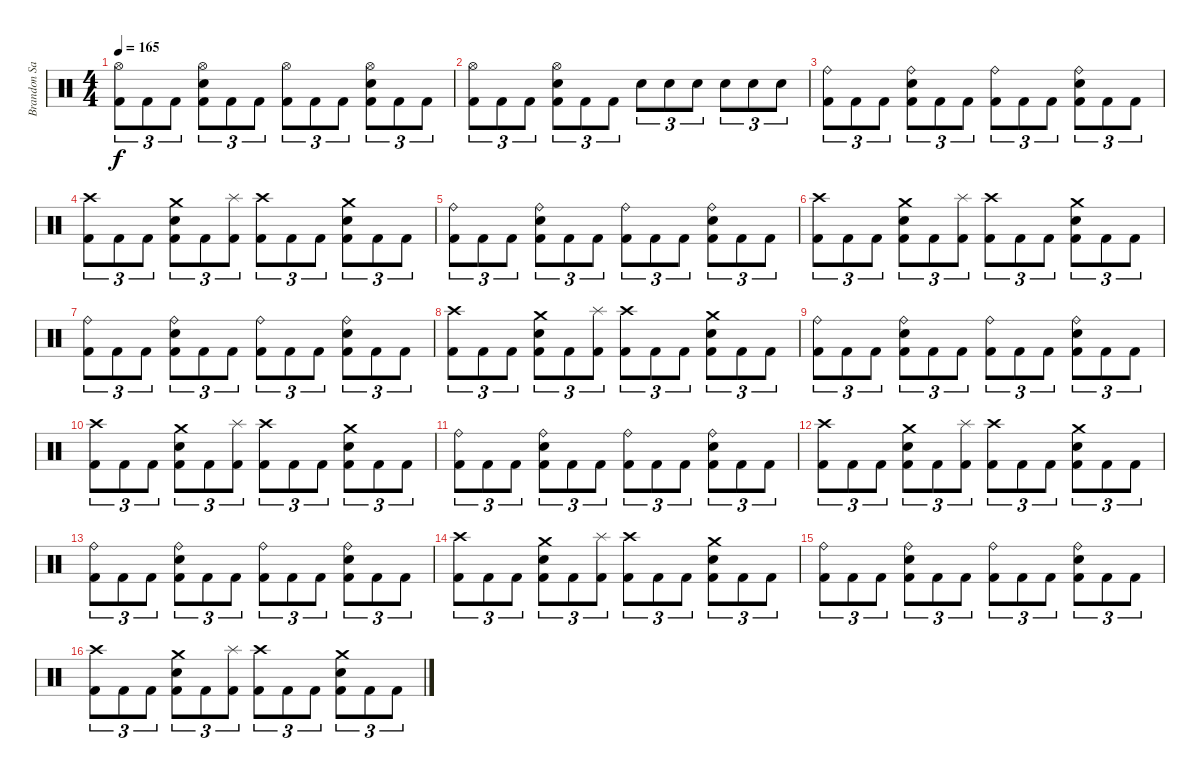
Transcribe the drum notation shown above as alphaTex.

\track ("Brandon Saller" "Brandon Sa") {instrument percussion}
\staff {score}
\articulation defaults
\ts (4 4)
\tempo 165
\clef neutral
\ks c
("Hi-Hat (open)" "Kick (hit) 2").8{tu (3 2) dy f} "Kick (hit) 2".8{tu (3 2)} "Kick (hit) 2".8{tu (3 2)} ("Hi-Hat (open)" "Electric Snare (hit)" "Kick (hit) 2").8{tu (3 2)} "Kick (hit) 2".8{tu (3 2)} "Kick (hit) 2".8{tu (3 2)} ("Hi-Hat (open)" "Kick (hit) 2").8{tu (3 2)} "Kick (hit) 2".8{tu (3 2)} "Kick (hit) 2".8{tu (3 2)} ("Hi-Hat (open)" "Electric Snare (hit)" "Kick (hit) 2").8{tu (3 2)} "Kick (hit) 2".8{tu (3 2)} "Kick (hit) 2".8{tu (3 2)} |
("Hi-Hat (open)" "Kick (hit) 2").8{tu (3 2)} "Kick (hit) 2".8{tu (3 2)} "Kick (hit) 2".8{tu (3 2)} ("Hi-Hat (open)" "Electric Snare (hit)" "Kick (hit) 2").8{tu (3 2)} "Kick (hit) 2".8{tu (3 2)} "Kick (hit) 2".8{tu (3 2)} "Electric Snare (hit)".8{tu (3 2)} "Electric Snare (hit)".8{tu (3 2)} "Electric Snare (hit)".8{tu (3 2)} "Electric Snare (hit)".8{tu (3 2)} "Electric Snare (hit)".8{tu (3 2)} "Electric Snare (hit)".8{tu (3 2)} |
("Ride (bell)" "Kick (hit) 2").8{tu (3 2)} "Kick (hit) 2".8{tu (3 2)} "Kick (hit) 2".8{tu (3 2)} ("Ride (bell)" "Electric Snare (hit)" "Kick (hit) 2").8{tu (3 2)} "Kick (hit) 2".8{tu (3 2)} "Kick (hit) 2".8{tu (3 2)} ("Ride (bell)" "Kick (hit) 2").8{tu (3 2)} "Kick (hit) 2".8{tu (3 2)} "Kick (hit) 2".8{tu (3 2)} ("Ride (bell)" "Electric Snare (hit)" "Kick (hit) 2").8{tu (3 2)} "Kick (hit) 2".8{tu (3 2)} "Kick (hit) 2".8{tu (3 2)} |
("Crash high (hit)" "Kick (hit) 2").8{tu (3 2)} "Kick (hit) 2".8{tu (3 2)} "Kick (hit) 2".8{tu (3 2)} ("Crash medium (hit)" "Electric Snare (hit)" "Kick (hit) 2").8{tu (3 2)} "Kick (hit) 2".8{tu (3 2)} ("Splash (hit)" "Kick (hit) 2").8{tu (3 2)} ("Crash high (hit)" "Kick (hit) 2").8{tu (3 2)} "Kick (hit) 2".8{tu (3 2)} "Kick (hit) 2".8{tu (3 2)} ("Crash medium (hit)" "Electric Snare (hit)" "Kick (hit) 2").8{tu (3 2)} "Kick (hit) 2".8{tu (3 2)} "Kick (hit) 2".8{tu (3 2)} |
("Ride (bell)" "Kick (hit) 2").8{tu (3 2)} "Kick (hit) 2".8{tu (3 2)} "Kick (hit) 2".8{tu (3 2)} ("Ride (bell)" "Electric Snare (hit)" "Kick (hit) 2").8{tu (3 2)} "Kick (hit) 2".8{tu (3 2)} "Kick (hit) 2".8{tu (3 2)} ("Ride (bell)" "Kick (hit) 2").8{tu (3 2)} "Kick (hit) 2".8{tu (3 2)} "Kick (hit) 2".8{tu (3 2)} ("Ride (bell)" "Electric Snare (hit)" "Kick (hit) 2").8{tu (3 2)} "Kick (hit) 2".8{tu (3 2)} "Kick (hit) 2".8{tu (3 2)} |
("Crash high (hit)" "Kick (hit) 2").8{tu (3 2)} "Kick (hit) 2".8{tu (3 2)} "Kick (hit) 2".8{tu (3 2)} ("Crash medium (hit)" "Electric Snare (hit)" "Kick (hit) 2").8{tu (3 2)} "Kick (hit) 2".8{tu (3 2)} ("Splash (hit)" "Kick (hit) 2").8{tu (3 2)} ("Crash high (hit)" "Kick (hit) 2").8{tu (3 2)} "Kick (hit) 2".8{tu (3 2)} "Kick (hit) 2".8{tu (3 2)} ("Crash medium (hit)" "Electric Snare (hit)" "Kick (hit) 2").8{tu (3 2)} "Kick (hit) 2".8{tu (3 2)} "Kick (hit) 2".8{tu (3 2)} |
("Ride (bell)" "Kick (hit) 2").8{tu (3 2)} "Kick (hit) 2".8{tu (3 2)} "Kick (hit) 2".8{tu (3 2)} ("Ride (bell)" "Electric Snare (hit)" "Kick (hit) 2").8{tu (3 2)} "Kick (hit) 2".8{tu (3 2)} "Kick (hit) 2".8{tu (3 2)} ("Ride (bell)" "Kick (hit) 2").8{tu (3 2)} "Kick (hit) 2".8{tu (3 2)} "Kick (hit) 2".8{tu (3 2)} ("Ride (bell)" "Electric Snare (hit)" "Kick (hit) 2").8{tu (3 2)} "Kick (hit) 2".8{tu (3 2)} "Kick (hit) 2".8{tu (3 2)} |
("Crash high (hit)" "Kick (hit) 2").8{tu (3 2)} "Kick (hit) 2".8{tu (3 2)} "Kick (hit) 2".8{tu (3 2)} ("Crash medium (hit)" "Electric Snare (hit)" "Kick (hit) 2").8{tu (3 2)} "Kick (hit) 2".8{tu (3 2)} ("Splash (hit)" "Kick (hit) 2").8{tu (3 2)} ("Crash high (hit)" "Kick (hit) 2").8{tu (3 2)} "Kick (hit) 2".8{tu (3 2)} "Kick (hit) 2".8{tu (3 2)} ("Crash medium (hit)" "Electric Snare (hit)" "Kick (hit) 2").8{tu (3 2)} "Kick (hit) 2".8{tu (3 2)} "Kick (hit) 2".8{tu (3 2)} |
("Ride (bell)" "Kick (hit) 2").8{tu (3 2)} "Kick (hit) 2".8{tu (3 2)} "Kick (hit) 2".8{tu (3 2)} ("Ride (bell)" "Electric Snare (hit)" "Kick (hit) 2").8{tu (3 2)} "Kick (hit) 2".8{tu (3 2)} "Kick (hit) 2".8{tu (3 2)} ("Ride (bell)" "Kick (hit) 2").8{tu (3 2)} "Kick (hit) 2".8{tu (3 2)} "Kick (hit) 2".8{tu (3 2)} ("Ride (bell)" "Electric Snare (hit)" "Kick (hit) 2").8{tu (3 2)} "Kick (hit) 2".8{tu (3 2)} "Kick (hit) 2".8{tu (3 2)} |
("Crash high (hit)" "Kick (hit) 2").8{tu (3 2)} "Kick (hit) 2".8{tu (3 2)} "Kick (hit) 2".8{tu (3 2)} ("Crash medium (hit)" "Electric Snare (hit)" "Kick (hit) 2").8{tu (3 2)} "Kick (hit) 2".8{tu (3 2)} ("Splash (hit)" "Kick (hit) 2").8{tu (3 2)} ("Crash high (hit)" "Kick (hit) 2").8{tu (3 2)} "Kick (hit) 2".8{tu (3 2)} "Kick (hit) 2".8{tu (3 2)} ("Crash medium (hit)" "Electric Snare (hit)" "Kick (hit) 2").8{tu (3 2)} "Kick (hit) 2".8{tu (3 2)} "Kick (hit) 2".8{tu (3 2)} |
("Ride (bell)" "Kick (hit) 2").8{tu (3 2)} "Kick (hit) 2".8{tu (3 2)} "Kick (hit) 2".8{tu (3 2)} ("Ride (bell)" "Electric Snare (hit)" "Kick (hit) 2").8{tu (3 2)} "Kick (hit) 2".8{tu (3 2)} "Kick (hit) 2".8{tu (3 2)} ("Ride (bell)" "Kick (hit) 2").8{tu (3 2)} "Kick (hit) 2".8{tu (3 2)} "Kick (hit) 2".8{tu (3 2)} ("Ride (bell)" "Electric Snare (hit)" "Kick (hit) 2").8{tu (3 2)} "Kick (hit) 2".8{tu (3 2)} "Kick (hit) 2".8{tu (3 2)} |
("Crash high (hit)" "Kick (hit) 2").8{tu (3 2)} "Kick (hit) 2".8{tu (3 2)} "Kick (hit) 2".8{tu (3 2)} ("Crash medium (hit)" "Electric Snare (hit)" "Kick (hit) 2").8{tu (3 2)} "Kick (hit) 2".8{tu (3 2)} ("Splash (hit)" "Kick (hit) 2").8{tu (3 2)} ("Crash high (hit)" "Kick (hit) 2").8{tu (3 2)} "Kick (hit) 2".8{tu (3 2)} "Kick (hit) 2".8{tu (3 2)} ("Crash medium (hit)" "Electric Snare (hit)" "Kick (hit) 2").8{tu (3 2)} "Kick (hit) 2".8{tu (3 2)} "Kick (hit) 2".8{tu (3 2)} |
("Ride (bell)" "Kick (hit) 2").8{tu (3 2)} "Kick (hit) 2".8{tu (3 2)} "Kick (hit) 2".8{tu (3 2)} ("Ride (bell)" "Electric Snare (hit)" "Kick (hit) 2").8{tu (3 2)} "Kick (hit) 2".8{tu (3 2)} "Kick (hit) 2".8{tu (3 2)} ("Ride (bell)" "Kick (hit) 2").8{tu (3 2)} "Kick (hit) 2".8{tu (3 2)} "Kick (hit) 2".8{tu (3 2)} ("Ride (bell)" "Electric Snare (hit)" "Kick (hit) 2").8{tu (3 2)} "Kick (hit) 2".8{tu (3 2)} "Kick (hit) 2".8{tu (3 2)} |
("Crash high (hit)" "Kick (hit) 2").8{tu (3 2)} "Kick (hit) 2".8{tu (3 2)} "Kick (hit) 2".8{tu (3 2)} ("Crash medium (hit)" "Electric Snare (hit)" "Kick (hit) 2").8{tu (3 2)} "Kick (hit) 2".8{tu (3 2)} ("Splash (hit)" "Kick (hit) 2").8{tu (3 2)} ("Crash high (hit)" "Kick (hit) 2").8{tu (3 2)} "Kick (hit) 2".8{tu (3 2)} "Kick (hit) 2".8{tu (3 2)} ("Crash medium (hit)" "Electric Snare (hit)" "Kick (hit) 2").8{tu (3 2)} "Kick (hit) 2".8{tu (3 2)} "Kick (hit) 2".8{tu (3 2)} |
("Ride (bell)" "Kick (hit) 2").8{tu (3 2)} "Kick (hit) 2".8{tu (3 2)} "Kick (hit) 2".8{tu (3 2)} ("Ride (bell)" "Electric Snare (hit)" "Kick (hit) 2").8{tu (3 2)} "Kick (hit) 2".8{tu (3 2)} "Kick (hit) 2".8{tu (3 2)} ("Ride (bell)" "Kick (hit) 2").8{tu (3 2)} "Kick (hit) 2".8{tu (3 2)} "Kick (hit) 2".8{tu (3 2)} ("Ride (bell)" "Electric Snare (hit)" "Kick (hit) 2").8{tu (3 2)} "Kick (hit) 2".8{tu (3 2)} "Kick (hit) 2".8{tu (3 2)} |
("Crash high (hit)" "Kick (hit) 2").8{tu (3 2)} "Kick (hit) 2".8{tu (3 2)} "Kick (hit) 2".8{tu (3 2)} ("Crash medium (hit)" "Electric Snare (hit)" "Kick (hit) 2").8{tu (3 2)} "Kick (hit) 2".8{tu (3 2)} ("Splash (hit)" "Kick (hit) 2").8{tu (3 2)} ("Crash high (hit)" "Kick (hit) 2").8{tu (3 2)} "Kick (hit) 2".8{tu (3 2)} "Kick (hit) 2".8{tu (3 2)} ("Crash medium (hit)" "Electric Snare (hit)" "Kick (hit) 2").8{tu (3 2)} "Kick (hit) 2".8{tu (3 2)} "Kick (hit) 2".8{tu (3 2)}
